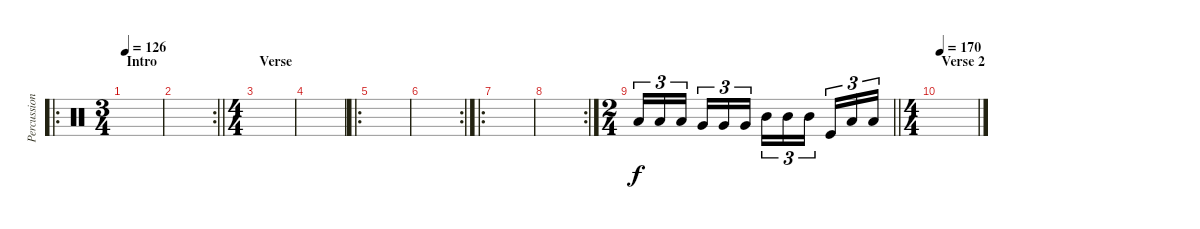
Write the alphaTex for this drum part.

\track ("Percussion" "Percussion") {instrument percussion}
\staff {score}
\articulation defaults
\ro
\ts (3 4)
\section ("" "Intro")
\tempo 126
\clef neutral
\ks c
|
\rc 2
\barLineRight lightlight
|
\ts (4 4)
\section ("" "Verse")
|
|
\ro
|
\rc 2
|
\ro
|
\rc 2
|
\ts (2 4)
\barLineRight lightlight "Low Tom (hit)".16{tu (3 2)} "Low Tom (hit)".16{tu (3 2)} "Low Tom (hit)".16{tu (3 2) beam splitsecondary} "Very Low Tom (hit)".16{tu (3 2)} "Very Low Tom (hit)".16{tu (3 2)} "Very Low Tom (hit)".16{tu (3 2)} "Mid Tom (hit)".16{tu (3 2)} "Mid Tom (hit)".16{tu (3 2)} "Mid Tom (hit)".16{tu (3 2) beam splitsecondary} "Kick (hit)".16{tu (3 2)} "Low Tom (hit)".16{tu (3 2)} "Low Tom (hit)".16{tu (3 2)}
|
\ts (4 4)
\section ("" "Verse 2")
\tempo 170
